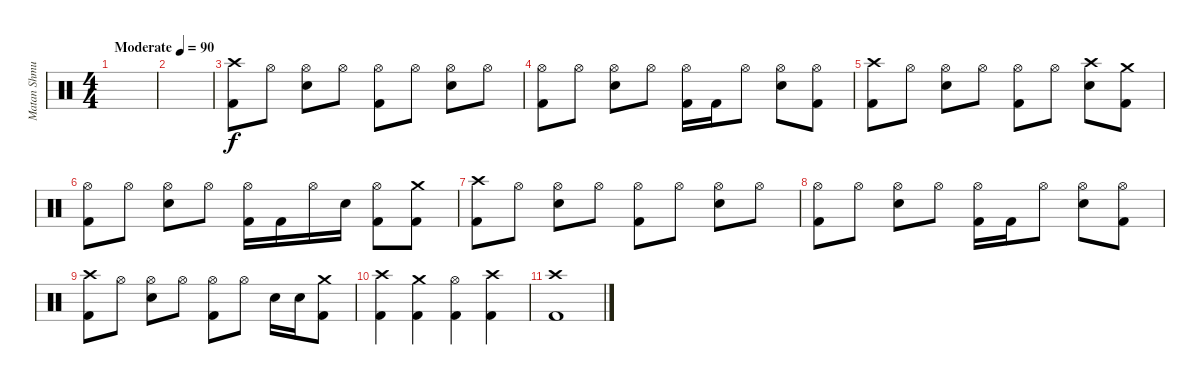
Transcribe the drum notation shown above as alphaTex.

\track ("Matan Shmuely " "Matan Shmu") {instrument percussion}
\staff {score}
\articulation defaults
\ts (4 4)
\tempo (90 "Moderate")
\clef neutral
\ks c
|
|
("Kick (hit) 2" "Crash high (hit)").8 "Hi-Hat (open)".8 ("Electric Snare (hit)" "Hi-Hat (open)").8 "Hi-Hat (open)".8 ("Kick (hit) 2" "Hi-Hat (open)").8 "Hi-Hat (open)".8 ("Electric Snare (hit)" "Hi-Hat (open)").8 "Hi-Hat (open)".8 |
("Kick (hit) 2" "Hi-Hat (open)").8 "Hi-Hat (open)".8 ("Electric Snare (hit)" "Hi-Hat (open)").8 "Hi-Hat (open)".8 ("Kick (hit) 2" "Hi-Hat (open)").16 "Kick (hit) 2".16 "Hi-Hat (open)".8 ("Electric Snare (hit)" "Hi-Hat (open)").8 ("Kick (hit) 2" "Hi-Hat (open)").8 |
("Kick (hit) 2" "Crash high (hit)").8 "Hi-Hat (open)".8 ("Electric Snare (hit)" "Hi-Hat (open)").8 "Hi-Hat (open)".8 ("Kick (hit) 2" "Hi-Hat (open)").8 "Hi-Hat (open)".8 ("Electric Snare (hit)" "Crash high (hit)").8 ("Kick (hit) 2" "Crash medium (hit)").8 |
("Kick (hit) 2" "Hi-Hat (open)").8 "Hi-Hat (open)".8 ("Electric Snare (hit)" "Hi-Hat (open)").8 "Hi-Hat (open)".8 ("Kick (hit) 2" "Hi-Hat (open)").16 "Kick (hit) 2".16 "Hi-Hat (open)".16 "Electric Snare (hit)".16 ("Kick (hit) 2" "Hi-Hat (open)").8 ("Kick (hit) 2" "Crash medium (hit)").8 |
("Kick (hit) 2" "Crash high (hit)").8 "Hi-Hat (open)".8 ("Electric Snare (hit)" "Hi-Hat (open)").8 "Hi-Hat (open)".8 ("Kick (hit) 2" "Hi-Hat (open)").8 "Hi-Hat (open)".8 ("Electric Snare (hit)" "Hi-Hat (open)").8 "Hi-Hat (open)".8 |
("Kick (hit) 2" "Hi-Hat (open)").8 "Hi-Hat (open)".8 ("Electric Snare (hit)" "Hi-Hat (open)").8 "Hi-Hat (open)".8 ("Kick (hit) 2" "Hi-Hat (open)").16 "Kick (hit) 2".16 "Hi-Hat (open)".8 ("Electric Snare (hit)" "Hi-Hat (open)").8 ("Kick (hit) 2" "Hi-Hat (open)").8 |
("Kick (hit) 2" "Crash high (hit)").8 "Hi-Hat (open)".8 ("Electric Snare (hit)" "Hi-Hat (open)").8 "Hi-Hat (open)".8 ("Kick (hit) 2" "Hi-Hat (open)").8 "Hi-Hat (open)".8 "Electric Snare (hit)".16 "Electric Snare (hit)".16 ("Kick (hit) 2" "Crash medium (hit)").8 |
("Kick (hit) 2" "Crash high (hit)").4 ("Kick (hit) 2" "Crash medium (hit)").4 ("Kick (hit) 2" "Hi-Hat (open)").4 ("Kick (hit) 2" "Crash high (hit)").4 |
("Kick (hit) 2" "Crash high (hit)").1
